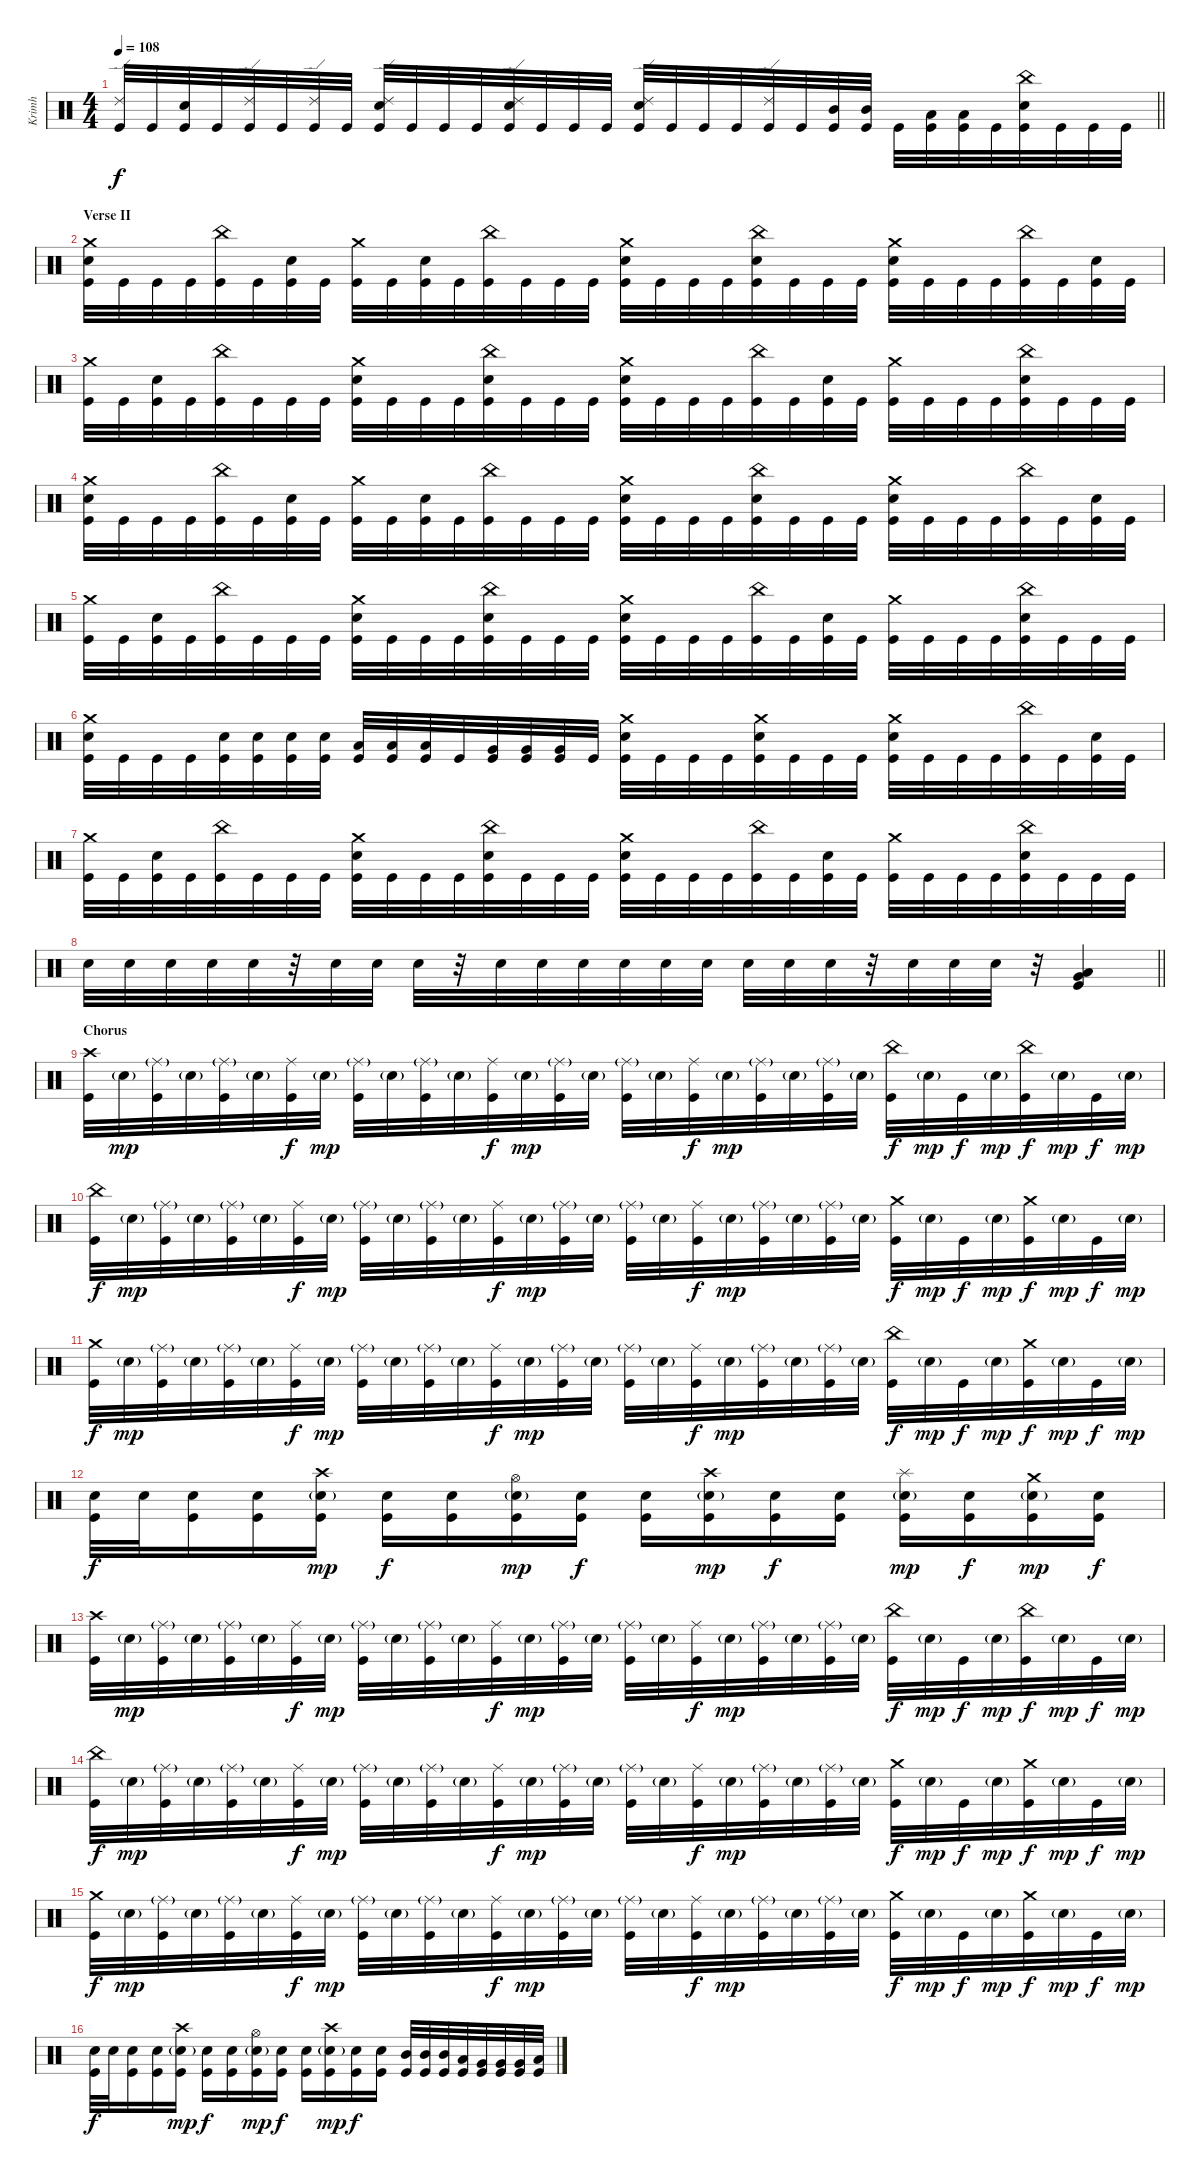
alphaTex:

\track ("Krimh" "Krimh") {instrument percussion}
\staff {score}
\articulation defaults
\ts (4 4)
\tempo 108
\clef neutral
\barLineRight lightlight
\ks c
("Ride (edge) 2" "Kick (hit)").32{dy f} "Kick (hit)".32 ("Electric Snare (hit)" "Kick (hit)").32 "Kick (hit)".32 ("Ride (edge) 2" "Kick (hit)").32 "Kick (hit)".32 ("Ride (edge) 2" "Kick (hit)").32 "Kick (hit)".32 ("Ride (edge) 2" "Electric Snare (hit)" "Kick (hit)").32 "Kick (hit)".32 "Kick (hit)".32 "Kick (hit)".32 ("Ride (edge) 2" "Electric Snare (hit)" "Kick (hit)").32 "Kick (hit)".32 "Kick (hit)".32 "Kick (hit)".32 ("Ride (edge) 2" "Electric Snare (hit)" "Kick (hit)").32 "Kick (hit)".32 "Kick (hit)".32 "Kick (hit)".32 ("Ride (edge) 2" "Kick (hit)").32 "Kick (hit)".32 ("Mid Tom (hit)" "Kick (hit)").32 ("Mid Tom (hit)" "Kick (hit)").32 "Kick (hit)".32 ("Low Tom (hit)" "Kick (hit)").32 ("Low Tom (hit)" "Kick (hit)").32 "Kick (hit)".32 ("China (hit)" "Electric Snare (hit)" "Kick (hit)").32 "Kick (hit)".32 "Kick (hit)".32 "Kick (hit)".32 |
\section ("" "Verse II")
("Crash medium (hit)" "Electric Snare (hit)" "Kick (hit)").32 "Kick (hit)".32 "Kick (hit)".32 "Kick (hit)".32 ("China (hit)" "Kick (hit)").32 "Kick (hit)".32 ("Electric Snare (hit)" "Kick (hit)").32 "Kick (hit)".32 ("Crash medium (hit)" "Kick (hit)").32 "Kick (hit)".32 ("Electric Snare (hit)" "Kick (hit)").32 "Kick (hit)".32 ("China (hit)" "Kick (hit)").32 "Kick (hit)".32 "Kick (hit)".32 "Kick (hit)".32 ("Crash medium (hit)" "Electric Snare (hit)" "Kick (hit)").32 "Kick (hit)".32 "Kick (hit)".32 "Kick (hit)".32 ("China (hit)" "Electric Snare (hit)" "Kick (hit)").32 "Kick (hit)".32 "Kick (hit)".32 "Kick (hit)".32 ("Crash medium (hit)" "Electric Snare (hit)" "Kick (hit)").32 "Kick (hit)".32 "Kick (hit)".32 "Kick (hit)".32 ("China (hit)" "Kick (hit)").32 "Kick (hit)".32 ("Electric Snare (hit)" "Kick (hit)").32 "Kick (hit)".32 |
("Crash medium (hit)" "Kick (hit)").32 "Kick (hit)".32 ("Electric Snare (hit)" "Kick (hit)").32 "Kick (hit)".32 ("China (hit)" "Kick (hit)").32 "Kick (hit)".32 "Kick (hit)".32 "Kick (hit)".32 ("Crash medium (hit)" "Electric Snare (hit)" "Kick (hit)").32 "Kick (hit)".32 "Kick (hit)".32 "Kick (hit)".32 ("China (hit)" "Electric Snare (hit)" "Kick (hit)").32 "Kick (hit)".32 "Kick (hit)".32 "Kick (hit)".32 ("Crash medium (hit)" "Electric Snare (hit)" "Kick (hit)").32 "Kick (hit)".32 "Kick (hit)".32 "Kick (hit)".32 ("China (hit)" "Kick (hit)").32 "Kick (hit)".32 ("Electric Snare (hit)" "Kick (hit)").32 "Kick (hit)".32 ("Crash medium (hit)" "Kick (hit)").32 "Kick (hit)".32 "Kick (hit)".32 "Kick (hit)".32 ("China (hit)" "Electric Snare (hit)" "Kick (hit)").32 "Kick (hit)".32 "Kick (hit)".32 "Kick (hit)".32 |
("Crash medium (hit)" "Electric Snare (hit)" "Kick (hit)").32 "Kick (hit)".32 "Kick (hit)".32 "Kick (hit)".32 ("China (hit)" "Kick (hit)").32 "Kick (hit)".32 ("Electric Snare (hit)" "Kick (hit)").32 "Kick (hit)".32 ("Crash medium (hit)" "Kick (hit)").32 "Kick (hit)".32 ("Electric Snare (hit)" "Kick (hit)").32 "Kick (hit)".32 ("China (hit)" "Kick (hit)").32 "Kick (hit)".32 "Kick (hit)".32 "Kick (hit)".32 ("Crash medium (hit)" "Electric Snare (hit)" "Kick (hit)").32 "Kick (hit)".32 "Kick (hit)".32 "Kick (hit)".32 ("China (hit)" "Electric Snare (hit)" "Kick (hit)").32 "Kick (hit)".32 "Kick (hit)".32 "Kick (hit)".32 ("Crash medium (hit)" "Electric Snare (hit)" "Kick (hit)").32 "Kick (hit)".32 "Kick (hit)".32 "Kick (hit)".32 ("China (hit)" "Kick (hit)").32 "Kick (hit)".32 ("Electric Snare (hit)" "Kick (hit)").32 "Kick (hit)".32 |
("Crash medium (hit)" "Kick (hit)").32 "Kick (hit)".32 ("Electric Snare (hit)" "Kick (hit)").32 "Kick (hit)".32 ("China (hit)" "Kick (hit)").32 "Kick (hit)".32 "Kick (hit)".32 "Kick (hit)".32 ("Crash medium (hit)" "Electric Snare (hit)" "Kick (hit)").32 "Kick (hit)".32 "Kick (hit)".32 "Kick (hit)".32 ("China (hit)" "Electric Snare (hit)" "Kick (hit)").32 "Kick (hit)".32 "Kick (hit)".32 "Kick (hit)".32 ("Crash medium (hit)" "Electric Snare (hit)" "Kick (hit)").32 "Kick (hit)".32 "Kick (hit)".32 "Kick (hit)".32 ("China (hit)" "Kick (hit)").32 "Kick (hit)".32 ("Electric Snare (hit)" "Kick (hit)").32 "Kick (hit)".32 ("Crash medium (hit)" "Kick (hit)").32 "Kick (hit)".32 "Kick (hit)".32 "Kick (hit)".32 ("China (hit)" "Electric Snare (hit)" "Kick (hit)").32 "Kick (hit)".32 "Kick (hit)".32 "Kick (hit)".32 |
("Crash medium (hit)" "Electric Snare (hit)" "Kick (hit)").32 "Kick (hit)".32 "Kick (hit)".32 "Kick (hit)".32 ("Electric Snare (hit)" "Kick (hit)").32 ("Electric Snare (hit)" "Kick (hit)").32 ("Electric Snare (hit)" "Kick (hit)").32 ("Electric Snare (hit)" "Kick (hit)").32 ("Low Tom (hit)" "Kick (hit)").32 ("Low Tom (hit)" "Kick (hit)").32 ("Low Tom (hit)" "Kick (hit)").32 "Kick (hit)".32 ("Very Low Tom (hit)" "Kick (hit)").32 ("Very Low Tom (hit)" "Kick (hit)").32 ("Very Low Tom (hit)" "Kick (hit)").32 "Kick (hit)".32 ("Crash medium (hit)" "Electric Snare (hit)" "Kick (hit)").32 "Kick (hit)".32 "Kick (hit)".32 "Kick (hit)".32 ("Crash medium (hit)" "Electric Snare (hit)" "Kick (hit)").32 "Kick (hit)".32 "Kick (hit)".32 "Kick (hit)".32 ("Crash medium (hit)" "Electric Snare (hit)" "Kick (hit)").32 "Kick (hit)".32 "Kick (hit)".32 "Kick (hit)".32 ("China (hit)" "Kick (hit)").32 "Kick (hit)".32 ("Electric Snare (hit)" "Kick (hit)").32 "Kick (hit)".32 |
("Crash medium (hit)" "Kick (hit)").32 "Kick (hit)".32 ("Electric Snare (hit)" "Kick (hit)").32 "Kick (hit)".32 ("China (hit)" "Kick (hit)").32 "Kick (hit)".32 "Kick (hit)".32 "Kick (hit)".32 ("Crash medium (hit)" "Electric Snare (hit)" "Kick (hit)").32 "Kick (hit)".32 "Kick (hit)".32 "Kick (hit)".32 ("China (hit)" "Electric Snare (hit)" "Kick (hit)").32 "Kick (hit)".32 "Kick (hit)".32 "Kick (hit)".32 ("Crash medium (hit)" "Electric Snare (hit)" "Kick (hit)").32 "Kick (hit)".32 "Kick (hit)".32 "Kick (hit)".32 ("China (hit)" "Kick (hit)").32 "Kick (hit)".32 ("Electric Snare (hit)" "Kick (hit)").32 "Kick (hit)".32 ("Crash medium (hit)" "Kick (hit)").32 "Kick (hit)".32 "Kick (hit)".32 "Kick (hit)".32 ("China (hit)" "Electric Snare (hit)" "Kick (hit)").32 "Kick (hit)".32 "Kick (hit)".32 "Kick (hit)".32 |
\barLineRight lightlight "Electric Snare (hit)".32 "Electric Snare (hit)".32 "Electric Snare (hit)".32 "Electric Snare (hit)".32 "Electric Snare (hit)".32
r.32 "Electric Snare (hit)".32 "Electric Snare (hit)".32 "Electric Snare (hit)".32 r.32 "Electric Snare (hit)".32 "Electric Snare (hit)".32 "Electric Snare (hit)".32 "Electric Snare (hit)".32 "Electric Snare (hit)".32 "Electric Snare (hit)".32 "Electric Snare (hit)".32 "Electric Snare (hit)".32 "Electric Snare (hit)".32 r.32 "Electric Snare (hit)".32 "Electric Snare (hit)".32 "Electric Snare (hit)".32 r.32 ("Low Tom (hit)" "Very Low Tom (hit)" "Kick (hit)").4 |
\section ("" "Chorus")
("Crash high (hit)" "Kick (hit)").32 "Electric Snare (hit)"{g}.32{dy mp} ("Ride (middle)"{g} "Kick (hit)").32 "Electric Snare (hit)"{g}.32 ("Ride (middle)"{g} "Kick (hit)").32 "Electric Snare (hit)"{g}.32 ("Ride (middle)" "Kick (hit)").32{dy f} "Electric Snare (hit)"{g}.32{dy mp} ("Ride (middle)"{g} "Kick (hit)").32 "Electric Snare (hit)"{g}.32 ("Ride (middle)"{g} "Kick (hit)").32 "Electric Snare (hit)"{g}.32 ("Ride (middle)" "Kick (hit)").32{dy f} "Electric Snare (hit)"{g}.32{dy mp} ("Ride (middle)"{g} "Kick (hit)").32 "Electric Snare (hit)"{g}.32 ("Ride (middle)"{g} "Kick (hit)").32 "Electric Snare (hit)"{g}.32 ("Ride (middle)" "Kick (hit)").32{dy f} "Electric Snare (hit)"{g}.32{dy mp} ("Ride (middle)"{g} "Kick (hit)").32 "Electric Snare (hit)"{g}.32 ("Ride (middle)"{g} "Kick (hit)").32 "Electric Snare (hit)"{g}.32 ("China (hit)" "Kick (hit)").32{dy f} "Electric Snare (hit)"{g}.32{dy mp} "Kick (hit)".32{dy f} "Electric Snare (hit)"{g}.32{dy mp} ("China (hit)" "Kick (hit)").32{dy f} "Electric Snare (hit)"{g}.32{dy mp} "Kick (hit)".32{dy f} "Electric Snare (hit)"{g}.32{dy mp} |
("China (hit)" "Kick (hit)").32{dy f} "Electric Snare (hit)"{g}.32{dy mp} ("Ride (middle)"{g} "Kick (hit)").32 "Electric Snare (hit)"{g}.32 ("Ride (middle)"{g} "Kick (hit)").32 "Electric Snare (hit)"{g}.32 ("Ride (middle)" "Kick (hit)").32{dy f} "Electric Snare (hit)"{g}.32{dy mp} ("Ride (middle)"{g} "Kick (hit)").32 "Electric Snare (hit)"{g}.32 ("Ride (middle)"{g} "Kick (hit)").32 "Electric Snare (hit)"{g}.32 ("Ride (middle)" "Kick (hit)").32{dy f} "Electric Snare (hit)"{g}.32{dy mp} ("Ride (middle)"{g} "Kick (hit)").32 "Electric Snare (hit)"{g}.32 ("Ride (middle)"{g} "Kick (hit)").32 "Electric Snare (hit)"{g}.32 ("Ride (middle)" "Kick (hit)").32{dy f} "Electric Snare (hit)"{g}.32{dy mp} ("Ride (middle)"{g} "Kick (hit)").32 "Electric Snare (hit)"{g}.32 ("Ride (middle)"{g} "Kick (hit)").32 "Electric Snare (hit)"{g}.32 ("Crash medium (hit)" "Kick (hit)").32{dy f} "Electric Snare (hit)"{g}.32{dy mp} "Kick (hit)".32{dy f} "Electric Snare (hit)"{g}.32{dy mp} ("Crash medium (hit)" "Kick (hit)").32{dy f} "Electric Snare (hit)"{g}.32{dy mp} "Kick (hit)".32{dy f} "Electric Snare (hit)"{g}.32{dy mp} |
("Crash medium (hit)" "Kick (hit)").32{dy f} "Electric Snare (hit)"{g}.32{dy mp} ("Ride (middle)"{g} "Kick (hit)").32 "Electric Snare (hit)"{g}.32 ("Ride (middle)"{g} "Kick (hit)").32 "Electric Snare (hit)"{g}.32 ("Ride (middle)" "Kick (hit)").32{dy f} "Electric Snare (hit)"{g}.32{dy mp} ("Ride (middle)"{g} "Kick (hit)").32 "Electric Snare (hit)"{g}.32 ("Ride (middle)"{g} "Kick (hit)").32 "Electric Snare (hit)"{g}.32 ("Ride (middle)" "Kick (hit)").32{dy f} "Electric Snare (hit)"{g}.32{dy mp} ("Ride (middle)"{g} "Kick (hit)").32 "Electric Snare (hit)"{g}.32 ("Ride (middle)"{g} "Kick (hit)").32 "Electric Snare (hit)"{g}.32 ("Ride (middle)" "Kick (hit)").32{dy f} "Electric Snare (hit)"{g}.32{dy mp} ("Ride (middle)"{g} "Kick (hit)").32 "Electric Snare (hit)"{g}.32 ("Ride (middle)"{g} "Kick (hit)").32 "Electric Snare (hit)"{g}.32 ("China (hit)" "Kick (hit)").32{dy f} "Electric Snare (hit)"{g}.32{dy mp} "Kick (hit)".32{dy f} "Electric Snare (hit)"{g}.32{dy mp} ("Crash medium (hit)" "Kick (hit)").32{dy f} "Electric Snare (hit)"{g}.32{dy mp} "Kick (hit)".32{dy f} "Electric Snare (hit)"{g}.32{dy mp} |
("Electric Snare (hit)" "Kick (hit)").32{dy f} "Electric Snare (hit)".32 ("Electric Snare (hit)" "Kick (hit)").16 ("Electric Snare (hit)" "Kick (hit)").16 ("Crash high (hit)" "Electric Snare (hit)"{g} "Kick (hit)").16{dy mp} ("Electric Snare (hit)" "Kick (hit)").16{dy f} ("Electric Snare (hit)" "Kick (hit)").16 ("Hi-Hat (open)" "Electric Snare (hit)"{g} "Kick (hit)").16{dy mp} ("Electric Snare (hit)" "Kick (hit)").16{dy f} ("Electric Snare (hit)" "Kick (hit)").16 ("Crash high (hit)" "Electric Snare (hit)"{g} "Kick (hit)").16{dy mp} ("Electric Snare (hit)" "Kick (hit)").16{dy f} ("Electric Snare (hit)" "Kick (hit)").16 ("Splash (hit)" "Electric Snare (hit)"{g} "Kick (hit)").16{dy mp} ("Electric Snare (hit)" "Kick (hit)").16{dy f} ("Crash medium (hit)" "Electric Snare (hit)"{g} "Kick (hit)").16{dy mp} ("Electric Snare (hit)" "Kick (hit)").16{dy f} |
("Crash high (hit)" "Kick (hit)").32 "Electric Snare (hit)"{g}.32{dy mp} ("Ride (middle)"{g} "Kick (hit)").32 "Electric Snare (hit)"{g}.32 ("Ride (middle)"{g} "Kick (hit)").32 "Electric Snare (hit)"{g}.32 ("Ride (middle)" "Kick (hit)").32{dy f} "Electric Snare (hit)"{g}.32{dy mp} ("Ride (middle)"{g} "Kick (hit)").32 "Electric Snare (hit)"{g}.32 ("Ride (middle)"{g} "Kick (hit)").32 "Electric Snare (hit)"{g}.32 ("Ride (middle)" "Kick (hit)").32{dy f} "Electric Snare (hit)"{g}.32{dy mp} ("Ride (middle)"{g} "Kick (hit)").32 "Electric Snare (hit)"{g}.32 ("Ride (middle)"{g} "Kick (hit)").32 "Electric Snare (hit)"{g}.32 ("Ride (middle)" "Kick (hit)").32{dy f} "Electric Snare (hit)"{g}.32{dy mp} ("Ride (middle)"{g} "Kick (hit)").32 "Electric Snare (hit)"{g}.32 ("Ride (middle)"{g} "Kick (hit)").32 "Electric Snare (hit)"{g}.32 ("China (hit)" "Kick (hit)").32{dy f} "Electric Snare (hit)"{g}.32{dy mp} "Kick (hit)".32{dy f} "Electric Snare (hit)"{g}.32{dy mp} ("China (hit)" "Kick (hit)").32{dy f} "Electric Snare (hit)"{g}.32{dy mp} "Kick (hit)".32{dy f} "Electric Snare (hit)"{g}.32{dy mp} |
("China (hit)" "Kick (hit)").32{dy f} "Electric Snare (hit)"{g}.32{dy mp} ("Ride (middle)"{g} "Kick (hit)").32 "Electric Snare (hit)"{g}.32 ("Ride (middle)"{g} "Kick (hit)").32 "Electric Snare (hit)"{g}.32 ("Ride (middle)" "Kick (hit)").32{dy f} "Electric Snare (hit)"{g}.32{dy mp} ("Ride (middle)"{g} "Kick (hit)").32 "Electric Snare (hit)"{g}.32 ("Ride (middle)"{g} "Kick (hit)").32 "Electric Snare (hit)"{g}.32 ("Ride (middle)" "Kick (hit)").32{dy f} "Electric Snare (hit)"{g}.32{dy mp} ("Ride (middle)"{g} "Kick (hit)").32 "Electric Snare (hit)"{g}.32 ("Ride (middle)"{g} "Kick (hit)").32 "Electric Snare (hit)"{g}.32 ("Ride (middle)" "Kick (hit)").32{dy f} "Electric Snare (hit)"{g}.32{dy mp} ("Ride (middle)"{g} "Kick (hit)").32 "Electric Snare (hit)"{g}.32 ("Ride (middle)"{g} "Kick (hit)").32 "Electric Snare (hit)"{g}.32 ("Crash medium (hit)" "Kick (hit)").32{dy f} "Electric Snare (hit)"{g}.32{dy mp} "Kick (hit)".32{dy f} "Electric Snare (hit)"{g}.32{dy mp} ("Crash medium (hit)" "Kick (hit)").32{dy f} "Electric Snare (hit)"{g}.32{dy mp} "Kick (hit)".32{dy f} "Electric Snare (hit)"{g}.32{dy mp} |
("Crash medium (hit)" "Kick (hit)").32{dy f} "Electric Snare (hit)"{g}.32{dy mp} ("Ride (middle)"{g} "Kick (hit)").32 "Electric Snare (hit)"{g}.32 ("Ride (middle)"{g} "Kick (hit)").32 "Electric Snare (hit)"{g}.32 ("Ride (middle)" "Kick (hit)").32{dy f} "Electric Snare (hit)"{g}.32{dy mp} ("Ride (middle)"{g} "Kick (hit)").32 "Electric Snare (hit)"{g}.32 ("Ride (middle)"{g} "Kick (hit)").32 "Electric Snare (hit)"{g}.32 ("Ride (middle)" "Kick (hit)").32{dy f} "Electric Snare (hit)"{g}.32{dy mp} ("Ride (middle)"{g} "Kick (hit)").32 "Electric Snare (hit)"{g}.32 ("Ride (middle)"{g} "Kick (hit)").32 "Electric Snare (hit)"{g}.32 ("Ride (middle)" "Kick (hit)").32{dy f} "Electric Snare (hit)"{g}.32{dy mp} ("Ride (middle)"{g} "Kick (hit)").32 "Electric Snare (hit)"{g}.32 ("Ride (middle)"{g} "Kick (hit)").32 "Electric Snare (hit)"{g}.32 ("Crash medium (hit)" "Kick (hit)").32{dy f} "Electric Snare (hit)"{g}.32{dy mp} "Kick (hit)".32{dy f} "Electric Snare (hit)"{g}.32{dy mp} ("Crash medium (hit)" "Kick (hit)").32{dy f} "Electric Snare (hit)"{g}.32{dy mp} "Kick (hit)".32{dy f} "Electric Snare (hit)"{g}.32{dy mp} |
("Electric Snare (hit)" "Kick (hit)").32{dy f} "Electric Snare (hit)".32 ("Electric Snare (hit)" "Kick (hit)").16 ("Electric Snare (hit)" "Kick (hit)").16 ("Crash high (hit)" "Electric Snare (hit)"{g} "Kick (hit)").16{dy mp} ("Electric Snare (hit)" "Kick (hit)").16{dy f} ("Electric Snare (hit)" "Kick (hit)").16 ("Hi-Hat (open)" "Electric Snare (hit)"{g} "Kick (hit)").16{dy mp} ("Electric Snare (hit)" "Kick (hit)").16{dy f} ("Electric Snare (hit)" "Kick (hit)").16 ("Crash high (hit)" "Electric Snare (hit)"{g} "Kick (hit)").16{dy mp} ("Electric Snare (hit)" "Kick (hit)").16{dy f} ("Electric Snare (hit)" "Kick (hit)").16 ("Mid Tom (hit)" "Kick (hit)").32 ("Mid Tom (hit)" "Kick (hit)").32 ("Mid Tom (hit)" "Kick (hit)").32 ("Low Tom (hit)" "Kick (hit)").32 ("Very Low Tom (hit)" "Kick (hit)").32 ("Very Low Tom (hit)" "Kick (hit)").32 ("Very Low Tom (hit)" "Kick (hit)").32 ("Low Floor Tom (hit)" "Kick (hit)").32
